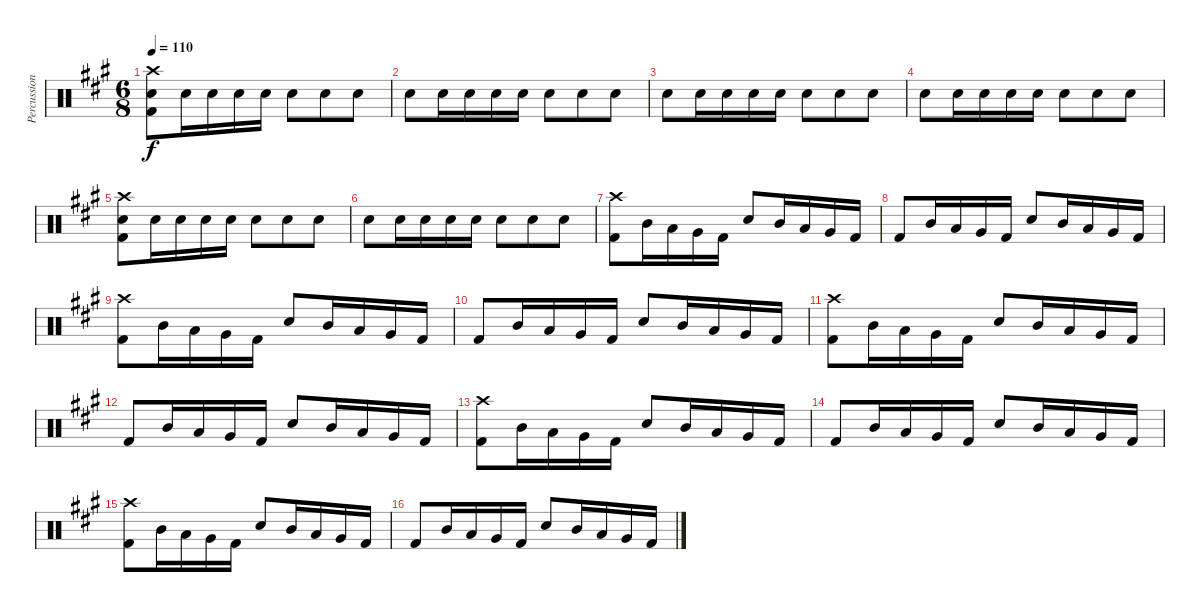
\track ("Percussions" "Percussion") {instrument percussion}
\staff {score}
\articulation defaults
\ts (6 8)
\tempo 110
\clef neutral
\ks a
("Crash high (hit)" "Electric Snare (hit)" "Kick (hit) 2").8{dy f} "Electric Snare (hit)".16 "Electric Snare (hit)".16 "Electric Snare (hit)".16 "Electric Snare (hit)".16 "Electric Snare (hit)".8 "Electric Snare (hit)".8 "Electric Snare (hit)".8 |
"Electric Snare (hit)".8 "Electric Snare (hit)".16 "Electric Snare (hit)".16 "Electric Snare (hit)".16 "Electric Snare (hit)".16 "Electric Snare (hit)".8 "Electric Snare (hit)".8 "Electric Snare (hit)".8 |
"Electric Snare (hit)".8 "Electric Snare (hit)".16 "Electric Snare (hit)".16 "Electric Snare (hit)".16 "Electric Snare (hit)".16 "Electric Snare (hit)".8 "Electric Snare (hit)".8 "Electric Snare (hit)".8 |
"Electric Snare (hit)".8 "Electric Snare (hit)".16 "Electric Snare (hit)".16 "Electric Snare (hit)".16 "Electric Snare (hit)".16 "Electric Snare (hit)".8 "Electric Snare (hit)".8 "Electric Snare (hit)".8 |
("Crash high (hit)" "Electric Snare (hit)" "Kick (hit) 2").8 "Electric Snare (hit)".16 "Electric Snare (hit)".16 "Electric Snare (hit)".16 "Electric Snare (hit)".16 "Electric Snare (hit)".8 "Electric Snare (hit)".8 "Electric Snare (hit)".8 |
"Electric Snare (hit)".8 "Electric Snare (hit)".16 "Electric Snare (hit)".16 "Electric Snare (hit)".16 "Electric Snare (hit)".16 "Electric Snare (hit)".8 "Electric Snare (hit)".8 "Electric Snare (hit)".8 |
("Crash high (hit)" "Kick (hit) 2").8 "Mid Tom (hit)".16 "Low Tom (hit)".16 "Very Low Tom (hit)".16 "Kick (hit) 2".16 "Electric Snare (hit)".8 "Mid Tom (hit)".16 "Low Tom (hit)".16 "Very Low Tom (hit)".16 "Kick (hit) 2".16 |
"Kick (hit) 2".8 "Mid Tom (hit)".16 "Low Tom (hit)".16 "Very Low Tom (hit)".16 "Kick (hit) 2".16 "Electric Snare (hit)".8 "Mid Tom (hit)".16 "Low Tom (hit)".16 "Very Low Tom (hit)".16 "Kick (hit) 2".16 |
("Crash high (hit)" "Kick (hit) 2").8 "Mid Tom (hit)".16 "Low Tom (hit)".16 "Very Low Tom (hit)".16 "Kick (hit) 2".16 "Electric Snare (hit)".8 "Mid Tom (hit)".16 "Low Tom (hit)".16 "Very Low Tom (hit)".16 "Kick (hit) 2".16 |
"Kick (hit) 2".8 "Mid Tom (hit)".16 "Low Tom (hit)".16 "Very Low Tom (hit)".16 "Kick (hit) 2".16 "Electric Snare (hit)".8 "Mid Tom (hit)".16 "Low Tom (hit)".16 "Very Low Tom (hit)".16 "Kick (hit) 2".16 |
("Crash high (hit)" "Kick (hit) 2").8 "Mid Tom (hit)".16 "Low Tom (hit)".16 "Very Low Tom (hit)".16 "Kick (hit) 2".16 "Electric Snare (hit)".8 "Mid Tom (hit)".16 "Low Tom (hit)".16 "Very Low Tom (hit)".16 "Kick (hit) 2".16 |
"Kick (hit) 2".8 "Mid Tom (hit)".16 "Low Tom (hit)".16 "Very Low Tom (hit)".16 "Kick (hit) 2".16 "Electric Snare (hit)".8 "Mid Tom (hit)".16 "Low Tom (hit)".16 "Very Low Tom (hit)".16 "Kick (hit) 2".16 |
("Crash high (hit)" "Kick (hit) 2").8 "Mid Tom (hit)".16 "Low Tom (hit)".16 "Very Low Tom (hit)".16 "Kick (hit) 2".16 "Electric Snare (hit)".8 "Mid Tom (hit)".16 "Low Tom (hit)".16 "Very Low Tom (hit)".16 "Kick (hit) 2".16 |
"Kick (hit) 2".8 "Mid Tom (hit)".16 "Low Tom (hit)".16 "Very Low Tom (hit)".16 "Kick (hit) 2".16 "Electric Snare (hit)".8 "Mid Tom (hit)".16 "Low Tom (hit)".16 "Very Low Tom (hit)".16 "Kick (hit) 2".16 |
("Crash high (hit)" "Kick (hit) 2").8 "Mid Tom (hit)".16 "Low Tom (hit)".16 "Very Low Tom (hit)".16 "Kick (hit) 2".16 "Electric Snare (hit)".8 "Mid Tom (hit)".16 "Low Tom (hit)".16 "Very Low Tom (hit)".16 "Kick (hit) 2".16 |
"Kick (hit) 2".8 "Mid Tom (hit)".16 "Low Tom (hit)".16 "Very Low Tom (hit)".16 "Kick (hit) 2".16 "Electric Snare (hit)".8 "Mid Tom (hit)".16 "Low Tom (hit)".16 "Very Low Tom (hit)".16 "Kick (hit) 2".16
